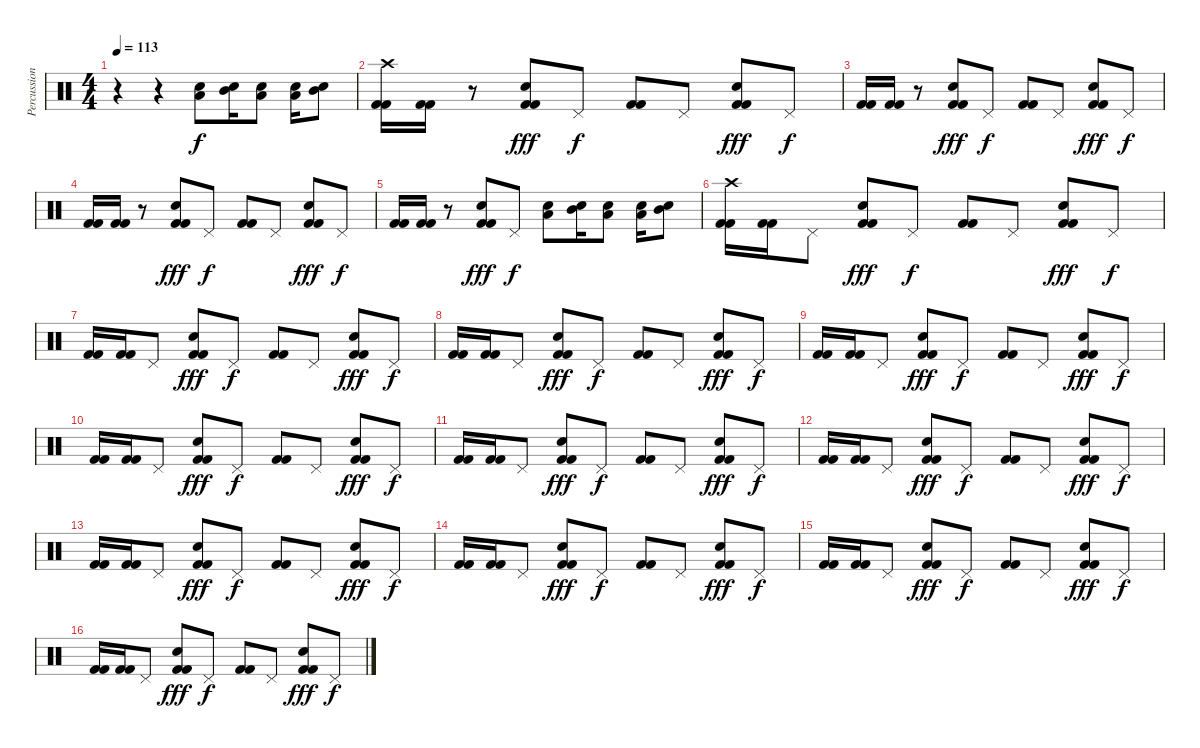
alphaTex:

\track ("Percussion" "Percussion") {instrument percussion}
\staff {score}
\articulation defaults
\ts (4 4)
\tempo 113
\clef neutral
\ks c
r.4{dy f} r.4 ("Electric Snare (hit)" "Low Tom (hit)").8 ("Electric Snare (hit)" "Mid Tom (hit)").16 ("Electric Snare (hit)" "Low Tom (hit)").8 ("Electric Snare (hit)" "Low Tom (hit)").16 ("Electric Snare (hit)" "Mid Tom (hit)").8 |
("Crash high (hit)" "Kick (hit) 2" "Kick (hit) 2").16 ("Kick (hit) 2" "Kick (hit) 2").16 r.8 ("Electric Snare (hit)" "Kick (hit) 2" "Kick (hit) 2").8{dy fff} "Pedal Hi-Hat (hit)".8{dy f} ("Kick (hit) 2" "Kick (hit) 2").8 "Pedal Hi-Hat (hit)".8 ("Electric Snare (hit)" "Kick (hit) 2" "Kick (hit) 2").8{dy fff} "Pedal Hi-Hat (hit)".8{dy f} |
("Kick (hit) 2" "Kick (hit) 2").16 ("Kick (hit) 2" "Kick (hit) 2").16 r.8 ("Electric Snare (hit)" "Kick (hit) 2" "Kick (hit) 2").8{dy fff} "Pedal Hi-Hat (hit)".8{dy f} ("Kick (hit) 2" "Kick (hit) 2").8 "Pedal Hi-Hat (hit)".8 ("Electric Snare (hit)" "Kick (hit) 2" "Kick (hit) 2").8{dy fff} "Pedal Hi-Hat (hit)".8{dy f} |
("Kick (hit) 2" "Kick (hit) 2").16 ("Kick (hit) 2" "Kick (hit) 2").16 r.8 ("Electric Snare (hit)" "Kick (hit) 2" "Kick (hit) 2").8{dy fff} "Pedal Hi-Hat (hit)".8{dy f} ("Kick (hit) 2" "Kick (hit) 2").8 "Pedal Hi-Hat (hit)".8 ("Electric Snare (hit)" "Kick (hit) 2" "Kick (hit) 2").8{dy fff} "Pedal Hi-Hat (hit)".8{dy f} |
("Kick (hit) 2" "Kick (hit) 2").16 ("Kick (hit) 2" "Kick (hit) 2").16 r.8 ("Electric Snare (hit)" "Kick (hit) 2" "Kick (hit) 2").8{dy fff} "Pedal Hi-Hat (hit)".8{dy f} ("Electric Snare (hit)" "Low Tom (hit)").8 ("Electric Snare (hit)" "Mid Tom (hit)").16 ("Electric Snare (hit)" "Low Tom (hit)").8 ("Electric Snare (hit)" "Low Tom (hit)").16 ("Electric Snare (hit)" "Mid Tom (hit)").8 |
("Crash high (hit)" "Kick (hit) 2" "Kick (hit) 2").16 ("Kick (hit) 2" "Kick (hit) 2").16 "Pedal Hi-Hat (hit)".8 ("Electric Snare (hit)" "Kick (hit) 2" "Kick (hit) 2").8{dy fff} "Pedal Hi-Hat (hit)".8{dy f} ("Kick (hit) 2" "Kick (hit) 2").8 "Pedal Hi-Hat (hit)".8 ("Electric Snare (hit)" "Kick (hit) 2" "Kick (hit) 2").8{dy fff} "Pedal Hi-Hat (hit)".8{dy f} |
("Kick (hit) 2" "Kick (hit) 2").16 ("Kick (hit) 2" "Kick (hit) 2").16 "Pedal Hi-Hat (hit)".8 ("Electric Snare (hit)" "Kick (hit) 2" "Kick (hit) 2").8{dy fff} "Pedal Hi-Hat (hit)".8{dy f} ("Kick (hit) 2" "Kick (hit) 2").8 "Pedal Hi-Hat (hit)".8 ("Electric Snare (hit)" "Kick (hit) 2" "Kick (hit) 2").8{dy fff} "Pedal Hi-Hat (hit)".8{dy f} |
("Kick (hit) 2" "Kick (hit) 2").16 ("Kick (hit) 2" "Kick (hit) 2").16 "Pedal Hi-Hat (hit)".8 ("Electric Snare (hit)" "Kick (hit) 2" "Kick (hit) 2").8{dy fff} "Pedal Hi-Hat (hit)".8{dy f} ("Kick (hit) 2" "Kick (hit) 2").8 "Pedal Hi-Hat (hit)".8 ("Electric Snare (hit)" "Kick (hit) 2" "Kick (hit) 2").8{dy fff} "Pedal Hi-Hat (hit)".8{dy f} |
("Kick (hit) 2" "Kick (hit) 2").16 ("Kick (hit) 2" "Kick (hit) 2").16 "Pedal Hi-Hat (hit)".8 ("Electric Snare (hit)" "Kick (hit) 2" "Kick (hit) 2").8{dy fff} "Pedal Hi-Hat (hit)".8{dy f} ("Kick (hit) 2" "Kick (hit) 2").8 "Pedal Hi-Hat (hit)".8 ("Electric Snare (hit)" "Kick (hit) 2" "Kick (hit) 2").8{dy fff} "Pedal Hi-Hat (hit)".8{dy f} |
("Kick (hit) 2" "Kick (hit) 2").16 ("Kick (hit) 2" "Kick (hit) 2").16 "Pedal Hi-Hat (hit)".8 ("Electric Snare (hit)" "Kick (hit) 2" "Kick (hit) 2").8{dy fff} "Pedal Hi-Hat (hit)".8{dy f} ("Kick (hit) 2" "Kick (hit) 2").8 "Pedal Hi-Hat (hit)".8 ("Electric Snare (hit)" "Kick (hit) 2" "Kick (hit) 2").8{dy fff} "Pedal Hi-Hat (hit)".8{dy f} |
("Kick (hit) 2" "Kick (hit) 2").16 ("Kick (hit) 2" "Kick (hit) 2").16 "Pedal Hi-Hat (hit)".8 ("Electric Snare (hit)" "Kick (hit) 2" "Kick (hit) 2").8{dy fff} "Pedal Hi-Hat (hit)".8{dy f} ("Kick (hit) 2" "Kick (hit) 2").8 "Pedal Hi-Hat (hit)".8 ("Electric Snare (hit)" "Kick (hit) 2" "Kick (hit) 2").8{dy fff} "Pedal Hi-Hat (hit)".8{dy f} |
("Kick (hit) 2" "Kick (hit) 2").16 ("Kick (hit) 2" "Kick (hit) 2").16 "Pedal Hi-Hat (hit)".8 ("Electric Snare (hit)" "Kick (hit) 2" "Kick (hit) 2").8{dy fff} "Pedal Hi-Hat (hit)".8{dy f} ("Kick (hit) 2" "Kick (hit) 2").8 "Pedal Hi-Hat (hit)".8 ("Electric Snare (hit)" "Kick (hit) 2" "Kick (hit) 2").8{dy fff} "Pedal Hi-Hat (hit)".8{dy f} |
("Kick (hit) 2" "Kick (hit) 2").16 ("Kick (hit) 2" "Kick (hit) 2").16 "Pedal Hi-Hat (hit)".8 ("Electric Snare (hit)" "Kick (hit) 2" "Kick (hit) 2").8{dy fff} "Pedal Hi-Hat (hit)".8{dy f} ("Kick (hit) 2" "Kick (hit) 2").8 "Pedal Hi-Hat (hit)".8 ("Electric Snare (hit)" "Kick (hit) 2" "Kick (hit) 2").8{dy fff} "Pedal Hi-Hat (hit)".8{dy f} |
("Kick (hit) 2" "Kick (hit) 2").16 ("Kick (hit) 2" "Kick (hit) 2").16 "Pedal Hi-Hat (hit)".8 ("Electric Snare (hit)" "Kick (hit) 2" "Kick (hit) 2").8{dy fff} "Pedal Hi-Hat (hit)".8{dy f} ("Kick (hit) 2" "Kick (hit) 2").8 "Pedal Hi-Hat (hit)".8 ("Electric Snare (hit)" "Kick (hit) 2" "Kick (hit) 2").8{dy fff} "Pedal Hi-Hat (hit)".8{dy f} |
("Kick (hit) 2" "Kick (hit) 2").16 ("Kick (hit) 2" "Kick (hit) 2").16 "Pedal Hi-Hat (hit)".8 ("Electric Snare (hit)" "Kick (hit) 2" "Kick (hit) 2").8{dy fff} "Pedal Hi-Hat (hit)".8{dy f} ("Kick (hit) 2" "Kick (hit) 2").8 "Pedal Hi-Hat (hit)".8 ("Electric Snare (hit)" "Kick (hit) 2" "Kick (hit) 2").8{dy fff} "Pedal Hi-Hat (hit)".8{dy f} |
("Kick (hit) 2" "Kick (hit) 2").16 ("Kick (hit) 2" "Kick (hit) 2").16 "Pedal Hi-Hat (hit)".8 ("Electric Snare (hit)" "Kick (hit) 2" "Kick (hit) 2").8{dy fff} "Pedal Hi-Hat (hit)".8{dy f} ("Kick (hit) 2" "Kick (hit) 2").8 "Pedal Hi-Hat (hit)".8 ("Electric Snare (hit)" "Kick (hit) 2" "Kick (hit) 2").8{dy fff} "Pedal Hi-Hat (hit)".8{dy f}
